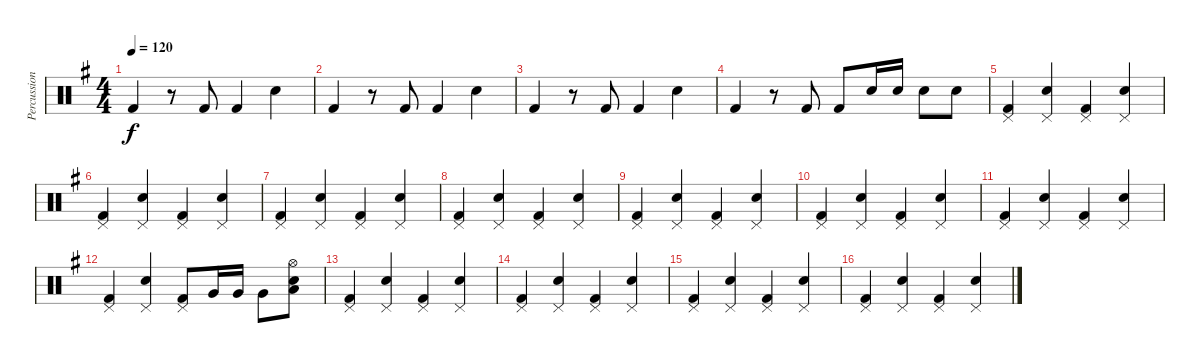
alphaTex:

\track ("Percussion" "Percussion") {instrument percussion}
\staff {score}
\articulation defaults
\ts (4 4)
\tempo 120
\clef neutral
\ks eminor "Kick (hit) 2".4{dy f}
r.8 "Kick (hit) 2".8 "Kick (hit) 2".4 "Snare (hit) 2".4 |
"Kick (hit) 2".4 r.8 "Kick (hit) 2".8 "Kick (hit) 2".4 "Snare (hit) 2".4 |
"Kick (hit) 2".4 r.8 "Kick (hit) 2".8 "Kick (hit) 2".4 "Snare (hit) 2".4 |
"Kick (hit) 2".4 r.8 "Kick (hit) 2".8 "Kick (hit) 2".8 "Snare (hit) 2".16 "Snare (hit) 2".16 "Snare (hit) 2".8 "Snare (hit) 2".8 |
("Kick (hit) 2" "Pedal Hi-Hat (hit)").4 ("Snare (hit) 2" "Pedal Hi-Hat (hit)").4 ("Kick (hit) 2" "Pedal Hi-Hat (hit)").4 ("Snare (hit) 2" "Pedal Hi-Hat (hit)").4 |
("Kick (hit) 2" "Pedal Hi-Hat (hit)").4 ("Snare (hit) 2" "Pedal Hi-Hat (hit)").4 ("Kick (hit) 2" "Pedal Hi-Hat (hit)").4 ("Snare (hit) 2" "Pedal Hi-Hat (hit)").4 |
("Kick (hit) 2" "Pedal Hi-Hat (hit)").4 ("Snare (hit) 2" "Pedal Hi-Hat (hit)").4 ("Kick (hit) 2" "Pedal Hi-Hat (hit)").4 ("Snare (hit) 2" "Pedal Hi-Hat (hit)").4 |
("Kick (hit) 2" "Pedal Hi-Hat (hit)").4 ("Snare (hit) 2" "Pedal Hi-Hat (hit)").4 ("Kick (hit) 2" "Pedal Hi-Hat (hit)").4 ("Snare (hit) 2" "Pedal Hi-Hat (hit)").4 |
("Kick (hit) 2" "Pedal Hi-Hat (hit)").4 ("Snare (hit) 2" "Pedal Hi-Hat (hit)").4 ("Kick (hit) 2" "Pedal Hi-Hat (hit)").4 ("Snare (hit) 2" "Pedal Hi-Hat (hit)").4 |
("Kick (hit) 2" "Pedal Hi-Hat (hit)").4 ("Snare (hit) 2" "Pedal Hi-Hat (hit)").4 ("Kick (hit) 2" "Pedal Hi-Hat (hit)").4 ("Snare (hit) 2" "Pedal Hi-Hat (hit)").4 |
("Kick (hit) 2" "Pedal Hi-Hat (hit)").4 ("Snare (hit) 2" "Pedal Hi-Hat (hit)").4 ("Kick (hit) 2" "Pedal Hi-Hat (hit)").4 ("Snare (hit) 2" "Pedal Hi-Hat (hit)").4 |
("Kick (hit) 2" "Pedal Hi-Hat (hit)").4 ("Snare (hit) 2" "Pedal Hi-Hat (hit)").4 ("Kick (hit) 2" "Pedal Hi-Hat (hit)").8 "Very Low Tom (hit)".16 "Very Low Tom (hit)".16 "Very Low Tom (hit)".8 ("Snare (hit) 2" "Low Floor Tom (hit)" "Hi-Hat (open)").8 |
("Kick (hit) 2" "Pedal Hi-Hat (hit)").4 ("Snare (hit) 2" "Pedal Hi-Hat (hit)").4 ("Kick (hit) 2" "Pedal Hi-Hat (hit)").4 ("Snare (hit) 2" "Pedal Hi-Hat (hit)").4 |
("Kick (hit) 2" "Pedal Hi-Hat (hit)").4 ("Snare (hit) 2" "Pedal Hi-Hat (hit)").4 ("Kick (hit) 2" "Pedal Hi-Hat (hit)").4 ("Snare (hit) 2" "Pedal Hi-Hat (hit)").4 |
("Kick (hit) 2" "Pedal Hi-Hat (hit)").4 ("Snare (hit) 2" "Pedal Hi-Hat (hit)").4 ("Kick (hit) 2" "Pedal Hi-Hat (hit)").4 ("Snare (hit) 2" "Pedal Hi-Hat (hit)").4 |
("Kick (hit) 2" "Pedal Hi-Hat (hit)").4 ("Snare (hit) 2" "Pedal Hi-Hat (hit)").4 ("Kick (hit) 2" "Pedal Hi-Hat (hit)").4 ("Snare (hit) 2" "Pedal Hi-Hat (hit)").4
